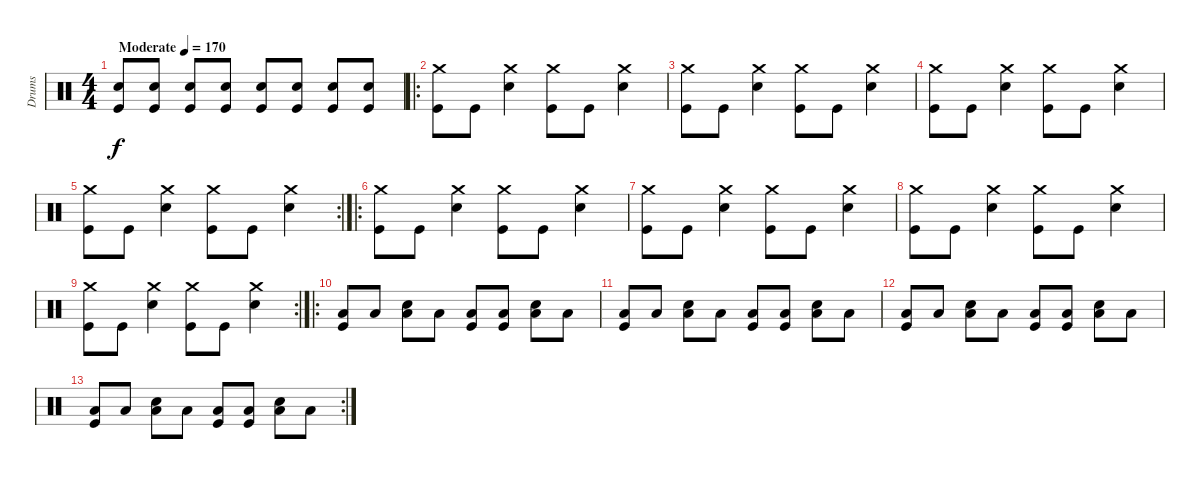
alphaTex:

\track ("Drums" "Drums") {instrument percussion}
\staff {score}
\articulation defaults
\ts (4 4)
\tempo (170 "Moderate")
\clef neutral
\ks c
("Snare (hit) 2" "Kick (hit)").8{dy f} ("Snare (hit) 2" "Kick (hit)").8 ("Snare (hit) 2" "Kick (hit)").8 ("Snare (hit) 2" "Kick (hit)").8 ("Snare (hit) 2" "Kick (hit)").8 ("Snare (hit) 2" "Kick (hit)").8 ("Snare (hit) 2" "Kick (hit)").8 ("Snare (hit) 2" "Kick (hit)").8 |
\ro
("Crash medium (hit)" "Kick (hit)").8 "Kick (hit)".8 ("Crash medium (hit)" "Snare (hit) 2").4 ("Crash medium (hit)" "Kick (hit)").8 "Kick (hit)".8 ("Crash medium (hit)" "Snare (hit) 2").4 |
("Crash medium (hit)" "Kick (hit)").8 "Kick (hit)".8 ("Crash medium (hit)" "Snare (hit) 2").4 ("Crash medium (hit)" "Kick (hit)").8 "Kick (hit)".8 ("Crash medium (hit)" "Snare (hit) 2").4 |
("Crash medium (hit)" "Kick (hit)").8 "Kick (hit)".8 ("Crash medium (hit)" "Snare (hit) 2").4 ("Crash medium (hit)" "Kick (hit)").8 "Kick (hit)".8 ("Crash medium (hit)" "Snare (hit) 2").4 |
\rc 2
("Crash medium (hit)" "Kick (hit)").8 "Kick (hit)".8 ("Crash medium (hit)" "Snare (hit) 2").4 ("Crash medium (hit)" "Kick (hit)").8 "Kick (hit)".8 ("Crash medium (hit)" "Snare (hit) 2").4 |
\ro
("Crash medium (hit)" "Kick (hit)").8 "Kick (hit)".8 ("Crash medium (hit)" "Snare (hit) 2").4 ("Crash medium (hit)" "Kick (hit)").8 "Kick (hit)".8 ("Crash medium (hit)" "Snare (hit) 2").4 |
("Crash medium (hit)" "Kick (hit)").8 "Kick (hit)".8 ("Crash medium (hit)" "Snare (hit) 2").4 ("Crash medium (hit)" "Kick (hit)").8 "Kick (hit)".8 ("Crash medium (hit)" "Snare (hit) 2").4 |
("Crash medium (hit)" "Kick (hit)").8 "Kick (hit)".8 ("Crash medium (hit)" "Snare (hit) 2").4 ("Crash medium (hit)" "Kick (hit)").8 "Kick (hit)".8 ("Crash medium (hit)" "Snare (hit) 2").4 |
\rc 2
("Crash medium (hit)" "Kick (hit)").8 "Kick (hit)".8 ("Crash medium (hit)" "Snare (hit) 2").4 ("Crash medium (hit)" "Kick (hit)").8 "Kick (hit)".8 ("Crash medium (hit)" "Snare (hit) 2").4 |
\ro
("Low Floor Tom (hit)" "Kick (hit)").8 "Low Floor Tom (hit)".8 ("Snare (hit) 2" "Low Floor Tom (hit)").8 "Low Floor Tom (hit)".8 ("Low Floor Tom (hit)" "Kick (hit)").8 ("Low Floor Tom (hit)" "Kick (hit)").8 ("Snare (hit) 2" "Low Floor Tom (hit)").8 "Low Floor Tom (hit)".8 |
("Low Floor Tom (hit)" "Kick (hit)").8 "Low Floor Tom (hit)".8 ("Snare (hit) 2" "Low Floor Tom (hit)").8 "Low Floor Tom (hit)".8 ("Low Floor Tom (hit)" "Kick (hit)").8 ("Low Floor Tom (hit)" "Kick (hit)").8 ("Snare (hit) 2" "Low Floor Tom (hit)").8 "Low Floor Tom (hit)".8 |
("Low Floor Tom (hit)" "Kick (hit)").8 "Low Floor Tom (hit)".8 ("Snare (hit) 2" "Low Floor Tom (hit)").8 "Low Floor Tom (hit)".8 ("Low Floor Tom (hit)" "Kick (hit)").8 ("Low Floor Tom (hit)" "Kick (hit)").8 ("Snare (hit) 2" "Low Floor Tom (hit)").8 "Low Floor Tom (hit)".8 |
\rc 2
("Low Floor Tom (hit)" "Kick (hit)").8 "Low Floor Tom (hit)".8 ("Snare (hit) 2" "Low Floor Tom (hit)").8 "Low Floor Tom (hit)".8 ("Low Floor Tom (hit)" "Kick (hit)").8 ("Low Floor Tom (hit)" "Kick (hit)").8 ("Snare (hit) 2" "Low Floor Tom (hit)").8 "Low Floor Tom (hit)".8
